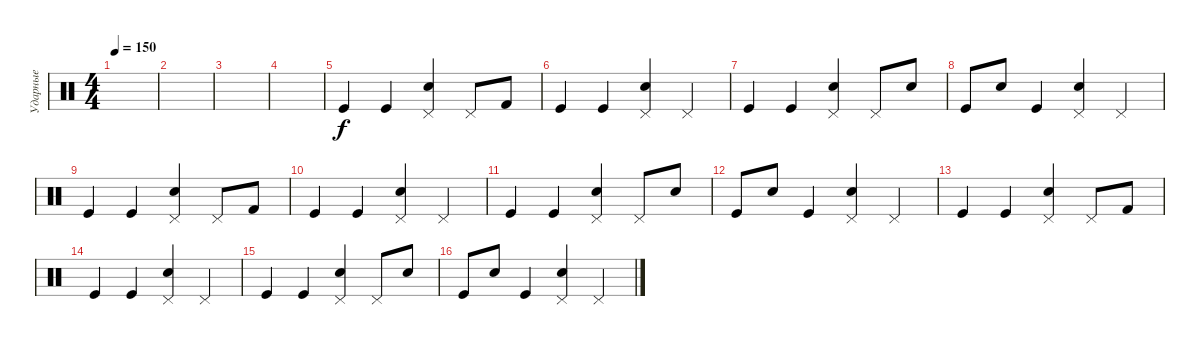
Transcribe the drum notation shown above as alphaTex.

\track ("Ударные" "Ударные") {instrument percussion}
\staff {score}
\articulation defaults
\ts (4 4)
\tempo 150
\clef neutral
\ks c
|
|
|
|
"Kick (hit)".4 "Kick (hit)".4 ("Electric Snare (hit)" "Pedal Hi-Hat (hit)").4 "Pedal Hi-Hat (hit)".8 "Kick (hit) 2".8 |
"Kick (hit)".4 "Kick (hit)".4 ("Electric Snare (hit)" "Pedal Hi-Hat (hit)").4 "Pedal Hi-Hat (hit)".4 |
"Kick (hit)".4 "Kick (hit)".4 ("Electric Snare (hit)" "Pedal Hi-Hat (hit)").4 "Pedal Hi-Hat (hit)".8 "Electric Snare (hit)".8 |
"Kick (hit)".8 "Electric Snare (hit)".8 "Kick (hit)".4 ("Electric Snare (hit)" "Pedal Hi-Hat (hit)").4 "Pedal Hi-Hat (hit)".4 |
"Kick (hit)".4 "Kick (hit)".4 ("Electric Snare (hit)" "Pedal Hi-Hat (hit)").4 "Pedal Hi-Hat (hit)".8 "Kick (hit) 2".8 |
"Kick (hit)".4 "Kick (hit)".4 ("Electric Snare (hit)" "Pedal Hi-Hat (hit)").4 "Pedal Hi-Hat (hit)".4 |
"Kick (hit)".4 "Kick (hit)".4 ("Electric Snare (hit)" "Pedal Hi-Hat (hit)").4 "Pedal Hi-Hat (hit)".8 "Electric Snare (hit)".8 |
"Kick (hit)".8 "Electric Snare (hit)".8 "Kick (hit)".4 ("Electric Snare (hit)" "Pedal Hi-Hat (hit)").4 "Pedal Hi-Hat (hit)".4 |
"Kick (hit)".4 "Kick (hit)".4 ("Electric Snare (hit)" "Pedal Hi-Hat (hit)").4 "Pedal Hi-Hat (hit)".8 "Kick (hit) 2".8 |
"Kick (hit)".4 "Kick (hit)".4 ("Electric Snare (hit)" "Pedal Hi-Hat (hit)").4 "Pedal Hi-Hat (hit)".4 |
"Kick (hit)".4 "Kick (hit)".4 ("Electric Snare (hit)" "Pedal Hi-Hat (hit)").4 "Pedal Hi-Hat (hit)".8 "Electric Snare (hit)".8 |
"Kick (hit)".8 "Electric Snare (hit)".8 "Kick (hit)".4 ("Electric Snare (hit)" "Pedal Hi-Hat (hit)").4 "Pedal Hi-Hat (hit)".4
